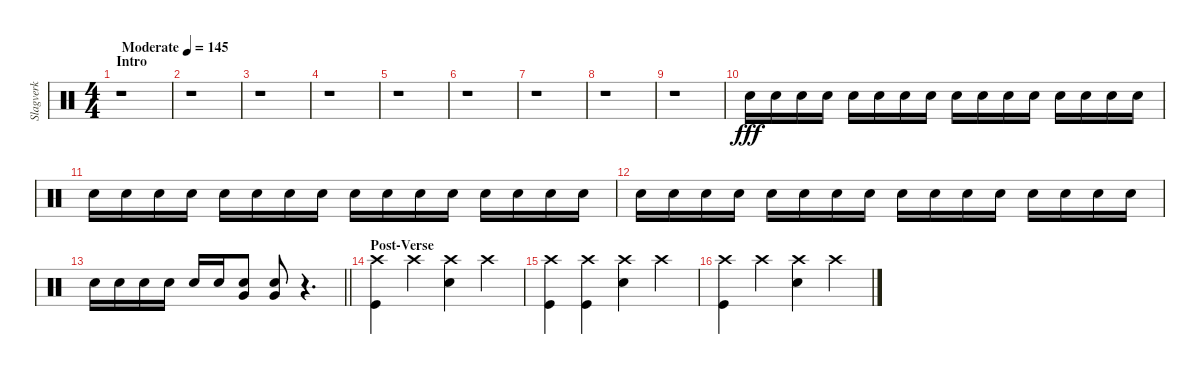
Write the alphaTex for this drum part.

\track ("Slagverk" "Slagverk") {instrument percussion}
\staff {score}
\articulation defaults
\ts (4 4)
\section ("" "Intro")
\tempo (145 "Moderate")
\clef neutral
\ks c
r.1{dy fff volume 3} |
r.1{volume 3} |
r.1{volume 3} |
r.1{volume 3} |
r.1{volume 3} |
r.1{volume 3} |
r.1{volume 3} |
r.1{volume 3} |
r.1{volume 3} |
"Snare (hit) 2".16{volume 16} "Snare (hit) 2".16 "Snare (hit) 2".16 "Snare (hit) 2".16 "Snare (hit) 2".16 "Snare (hit) 2".16 "Snare (hit) 2".16 "Snare (hit) 2".16 "Snare (hit) 2".16 "Snare (hit) 2".16 "Snare (hit) 2".16 "Snare (hit) 2".16 "Snare (hit) 2".16 "Snare (hit) 2".16 "Snare (hit) 2".16 "Snare (hit) 2".16 |
"Snare (hit) 2".16 "Snare (hit) 2".16 "Snare (hit) 2".16 "Snare (hit) 2".16 "Snare (hit) 2".16 "Snare (hit) 2".16 "Snare (hit) 2".16 "Snare (hit) 2".16 "Snare (hit) 2".16 "Snare (hit) 2".16 "Snare (hit) 2".16 "Snare (hit) 2".16 "Snare (hit) 2".16 "Snare (hit) 2".16 "Snare (hit) 2".16 "Snare (hit) 2".16 |
"Snare (hit) 2".16 "Snare (hit) 2".16 "Snare (hit) 2".16 "Snare (hit) 2".16 "Snare (hit) 2".16 "Snare (hit) 2".16 "Snare (hit) 2".16 "Snare (hit) 2".16 "Snare (hit) 2".16 "Snare (hit) 2".16 "Snare (hit) 2".16 "Snare (hit) 2".16 "Snare (hit) 2".16 "Snare (hit) 2".16 "Snare (hit) 2".16 "Snare (hit) 2".16 |
\barLineRight lightlight "Snare (hit) 2".16 "Snare (hit) 2".16 "Snare (hit) 2".16 "Snare (hit) 2".16 "Snare (hit) 2".16 "Snare (hit) 2".16
("Very Low Tom (hit)" "Snare (hit) 2").8 ("Very Low Tom (hit)" "Snare (hit) 2").8 r.4{d} |
\section ("" "Post-Verse")
("Crash high (hit)" "Kick (hit)").4 "Crash high (hit)".4 ("Crash high (hit)" "Snare (hit) 2").4 "Crash high (hit)".4 |
("Crash high (hit)" "Kick (hit)").4 ("Crash high (hit)" "Kick (hit)").4 ("Crash high (hit)" "Snare (hit) 2").4 "Crash high (hit)".4 |
("Crash high (hit)" "Kick (hit)").4 "Crash high (hit)".4 ("Crash high (hit)" "Snare (hit) 2").4 "Crash high (hit)".4
